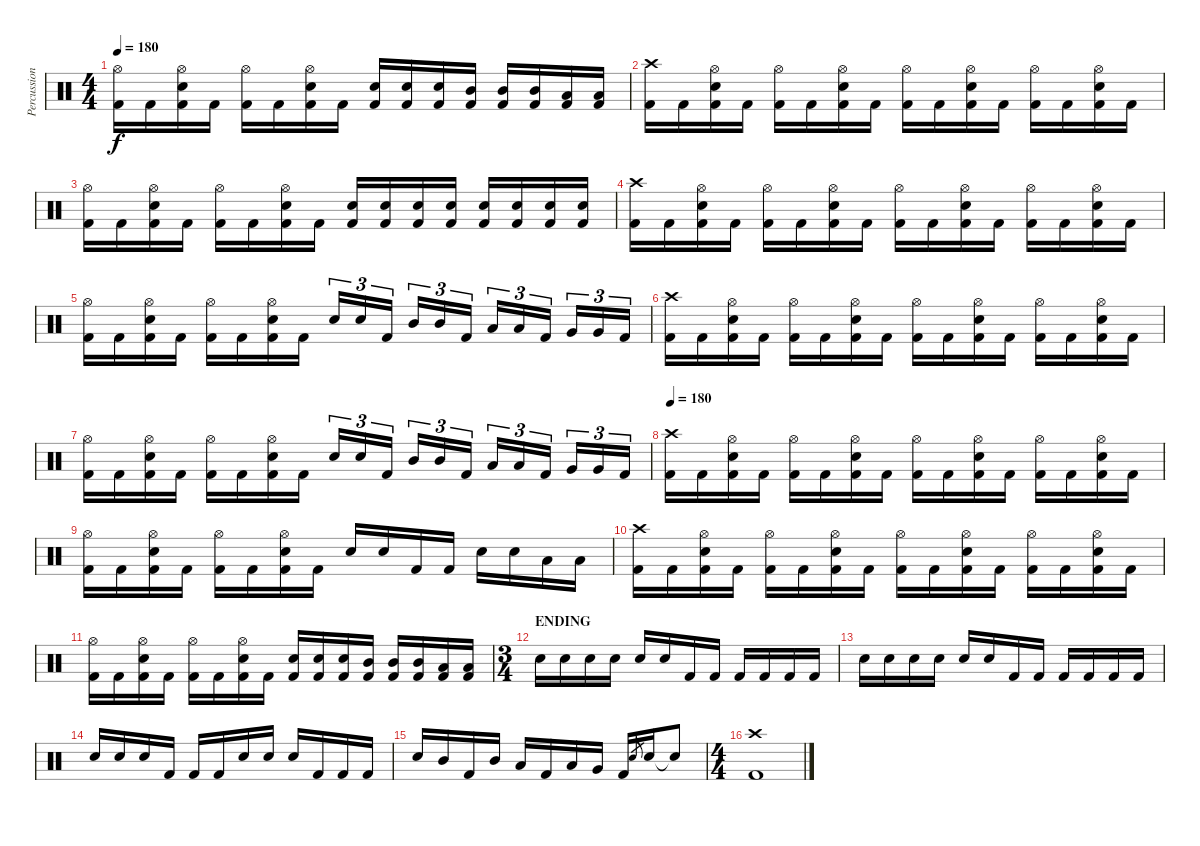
\track ("Percussion" "Percussion") {instrument percussion}
\staff {score}
\articulation defaults
\ts (4 4)
\tempo 180
\clef neutral
\ks c
("Hi-Hat (open)" "Kick (hit) 2").16{dy f} "Kick (hit) 2".16 ("Hi-Hat (open)" "Snare (hit) 2" "Kick (hit) 2").16 "Kick (hit) 2".16 ("Hi-Hat (open)" "Kick (hit) 2").16 "Kick (hit) 2".16 ("Hi-Hat (open)" "Snare (hit) 2" "Kick (hit) 2").16 "Kick (hit) 2".16 ("Snare (hit) 2" "Kick (hit) 2").16 ("Snare (hit) 2" "Kick (hit) 2").16 ("Snare (hit) 2" "Kick (hit) 2").16 ("Mid Tom (hit)" "Kick (hit) 2").16 ("Mid Tom (hit)" "Kick (hit) 2").16 ("Mid Tom (hit)" "Kick (hit) 2").16 ("Low Tom (hit)" "Kick (hit) 2").16 ("Low Tom (hit)" "Kick (hit) 2").16 |
("Crash high (hit)" "Kick (hit) 2").16 "Kick (hit) 2".16 ("Hi-Hat (open)" "Snare (hit) 2" "Kick (hit) 2").16 "Kick (hit) 2".16 ("Hi-Hat (open)" "Kick (hit) 2").16 "Kick (hit) 2".16 ("Hi-Hat (open)" "Snare (hit) 2" "Kick (hit) 2").16 "Kick (hit) 2".16 ("Hi-Hat (open)" "Kick (hit) 2").16 "Kick (hit) 2".16 ("Hi-Hat (open)" "Snare (hit) 2" "Kick (hit) 2").16 "Kick (hit) 2".16 ("Hi-Hat (open)" "Kick (hit) 2").16 "Kick (hit) 2".16 ("Hi-Hat (open)" "Snare (hit) 2" "Kick (hit) 2").16 "Kick (hit) 2".16 |
("Hi-Hat (open)" "Kick (hit) 2").16 "Kick (hit) 2".16 ("Hi-Hat (open)" "Snare (hit) 2" "Kick (hit) 2").16 "Kick (hit) 2".16 ("Hi-Hat (open)" "Kick (hit) 2").16 "Kick (hit) 2".16 ("Hi-Hat (open)" "Snare (hit) 2" "Kick (hit) 2").16 "Kick (hit) 2".16 ("Snare (hit) 2" "Kick (hit) 2").16 ("Snare (hit) 2" "Kick (hit) 2").16 ("Snare (hit) 2" "Kick (hit) 2").16 ("Snare (hit) 2" "Kick (hit) 2").16 ("Snare (hit) 2" "Kick (hit) 2").16 ("Snare (hit) 2" "Kick (hit) 2").16 ("Snare (hit) 2" "Kick (hit) 2").16 ("Snare (hit) 2" "Kick (hit) 2").16 |
("Crash high (hit)" "Kick (hit) 2").16 "Kick (hit) 2".16 ("Hi-Hat (open)" "Snare (hit) 2" "Kick (hit) 2").16 "Kick (hit) 2".16 ("Hi-Hat (open)" "Kick (hit) 2").16 "Kick (hit) 2".16 ("Hi-Hat (open)" "Snare (hit) 2" "Kick (hit) 2").16 "Kick (hit) 2".16 ("Hi-Hat (open)" "Kick (hit) 2").16 "Kick (hit) 2".16 ("Hi-Hat (open)" "Snare (hit) 2" "Kick (hit) 2").16 "Kick (hit) 2".16 ("Hi-Hat (open)" "Kick (hit) 2").16 "Kick (hit) 2".16 ("Hi-Hat (open)" "Snare (hit) 2" "Kick (hit) 2").16 "Kick (hit) 2".16 |
("Hi-Hat (open)" "Kick (hit) 2").16 "Kick (hit) 2".16 ("Hi-Hat (open)" "Snare (hit) 2" "Kick (hit) 2").16 "Kick (hit) 2".16 ("Hi-Hat (open)" "Kick (hit) 2").16 "Kick (hit) 2".16 ("Hi-Hat (open)" "Snare (hit) 2" "Kick (hit) 2").16 "Kick (hit) 2".16 "Snare (hit) 2".16{tu (3 2)} "Snare (hit) 2".16{tu (3 2)} "Kick (hit) 2".16{tu (3 2)} "Mid Tom (hit)".16{tu (3 2)} "Mid Tom (hit)".16{tu (3 2)} "Kick (hit) 2".16{tu (3 2)} "Low Tom (hit)".16{tu (3 2)} "Low Tom (hit)".16{tu (3 2)} "Kick (hit) 2".16{tu (3 2)} "Very Low Tom (hit)".16{tu (3 2)} "Very Low Tom (hit)".16{tu (3 2)} "Kick (hit) 2".16{tu (3 2)} |
("Crash high (hit)" "Kick (hit) 2").16 "Kick (hit) 2".16 ("Hi-Hat (open)" "Snare (hit) 2" "Kick (hit) 2").16 "Kick (hit) 2".16 ("Hi-Hat (open)" "Kick (hit) 2").16 "Kick (hit) 2".16 ("Hi-Hat (open)" "Snare (hit) 2" "Kick (hit) 2").16 "Kick (hit) 2".16 ("Hi-Hat (open)" "Kick (hit) 2").16 "Kick (hit) 2".16 ("Hi-Hat (open)" "Snare (hit) 2" "Kick (hit) 2").16 "Kick (hit) 2".16 ("Hi-Hat (open)" "Kick (hit) 2").16 "Kick (hit) 2".16 ("Hi-Hat (open)" "Snare (hit) 2" "Kick (hit) 2").16 "Kick (hit) 2".16 |
("Hi-Hat (open)" "Kick (hit) 2").16 "Kick (hit) 2".16 ("Hi-Hat (open)" "Snare (hit) 2" "Kick (hit) 2").16 "Kick (hit) 2".16 ("Hi-Hat (open)" "Kick (hit) 2").16 "Kick (hit) 2".16 ("Hi-Hat (open)" "Snare (hit) 2" "Kick (hit) 2").16 "Kick (hit) 2".16 "Snare (hit) 2".16{tu (3 2)} "Snare (hit) 2".16{tu (3 2)} "Kick (hit) 2".16{tu (3 2)} "Mid Tom (hit)".16{tu (3 2)} "Mid Tom (hit)".16{tu (3 2)} "Kick (hit) 2".16{tu (3 2)} "Low Tom (hit)".16{tu (3 2)} "Low Tom (hit)".16{tu (3 2)} "Kick (hit) 2".16{tu (3 2)} "Very Low Tom (hit)".16{tu (3 2)} "Very Low Tom (hit)".16{tu (3 2)} "Kick (hit) 2".16{tu (3 2)} |
\tempo 180
("Crash high (hit)" "Kick (hit) 2").16 "Kick (hit) 2".16 ("Hi-Hat (open)" "Snare (hit) 2" "Kick (hit) 2").16 "Kick (hit) 2".16 ("Hi-Hat (open)" "Kick (hit) 2").16 "Kick (hit) 2".16 ("Hi-Hat (open)" "Snare (hit) 2" "Kick (hit) 2").16 "Kick (hit) 2".16 ("Hi-Hat (open)" "Kick (hit) 2").16 "Kick (hit) 2".16 ("Hi-Hat (open)" "Snare (hit) 2" "Kick (hit) 2").16 "Kick (hit) 2".16 ("Hi-Hat (open)" "Kick (hit) 2").16 "Kick (hit) 2".16 ("Hi-Hat (open)" "Snare (hit) 2" "Kick (hit) 2").16 "Kick (hit) 2".16 |
("Hi-Hat (open)" "Kick (hit) 2").16 "Kick (hit) 2".16 ("Hi-Hat (open)" "Snare (hit) 2" "Kick (hit) 2").16 "Kick (hit) 2".16 ("Hi-Hat (open)" "Kick (hit) 2").16 "Kick (hit) 2".16 ("Hi-Hat (open)" "Snare (hit) 2" "Kick (hit) 2").16 "Kick (hit) 2".16 "Snare (hit) 2".16 "Snare (hit) 2".16 "Kick (hit) 2".16 "Kick (hit) 2".16 "Snare (hit) 2".16 "Snare (hit) 2".16 "Low Tom (hit)".16 "Low Tom (hit)".16 |
("Crash high (hit)" "Kick (hit) 2").16 "Kick (hit) 2".16 ("Hi-Hat (open)" "Snare (hit) 2" "Kick (hit) 2").16 "Kick (hit) 2".16 ("Hi-Hat (open)" "Kick (hit) 2").16 "Kick (hit) 2".16 ("Hi-Hat (open)" "Snare (hit) 2" "Kick (hit) 2").16 "Kick (hit) 2".16 ("Hi-Hat (open)" "Kick (hit) 2").16 "Kick (hit) 2".16 ("Hi-Hat (open)" "Snare (hit) 2" "Kick (hit) 2").16 "Kick (hit) 2".16 ("Hi-Hat (open)" "Kick (hit) 2").16 "Kick (hit) 2".16 ("Hi-Hat (open)" "Snare (hit) 2" "Kick (hit) 2").16 "Kick (hit) 2".16 |
("Hi-Hat (open)" "Kick (hit) 2").16 "Kick (hit) 2".16 ("Hi-Hat (open)" "Snare (hit) 2" "Kick (hit) 2").16 "Kick (hit) 2".16 ("Hi-Hat (open)" "Kick (hit) 2").16 "Kick (hit) 2".16 ("Hi-Hat (open)" "Snare (hit) 2" "Kick (hit) 2").16 "Kick (hit) 2".16 ("Snare (hit) 2" "Kick (hit) 2").16 ("Snare (hit) 2" "Kick (hit) 2").16 ("Snare (hit) 2" "Kick (hit) 2").16 ("Mid Tom (hit)" "Kick (hit) 2").16 ("Mid Tom (hit)" "Kick (hit) 2").16 ("Mid Tom (hit)" "Kick (hit) 2").16 ("Low Tom (hit)" "Kick (hit) 2").16 ("Low Tom (hit)" "Kick (hit) 2").16 |
\ts (3 4)
\section ("" "ENDING")
"Snare (hit) 2".16 "Snare (hit) 2".16 "Snare (hit) 2".16 "Snare (hit) 2".16 "Snare (hit) 2".16 "Snare (hit) 2".16 "Kick (hit) 2".16 "Kick (hit) 2".16 "Kick (hit) 2".16 "Kick (hit) 2".16 "Kick (hit) 2".16 "Kick (hit) 2".16 |
"Snare (hit) 2".16 "Snare (hit) 2".16 "Snare (hit) 2".16 "Snare (hit) 2".16 "Snare (hit) 2".16 "Snare (hit) 2".16 "Kick (hit) 2".16 "Kick (hit) 2".16 "Kick (hit) 2".16 "Kick (hit) 2".16 "Kick (hit) 2".16 "Kick (hit) 2".16 |
"Snare (hit) 2".16 "Snare (hit) 2".16 "Snare (hit) 2".16 "Kick (hit) 2".16 "Kick (hit) 2".16 "Kick (hit) 2".16 "Snare (hit) 2".16 "Snare (hit) 2".16 "Snare (hit) 2".16 "Kick (hit) 2".16 "Kick (hit) 2".16 "Kick (hit) 2".16 |
"Snare (hit) 2".16 "Mid Tom (hit)".16 "Kick (hit) 2".16 "Mid Tom (hit)".16 "Low Tom (hit)".16 "Kick (hit) 2".16 "Low Tom (hit)".16 "Very Low Tom (hit)".16 "Kick (hit) 2".16 "Snare (hit) 2".8{gr} "Snare (hit) 2".16 "Snare (hit)"{t}.8 |
\ts (4 4)
("Crash high (hit)" "Kick (hit) 2").1
